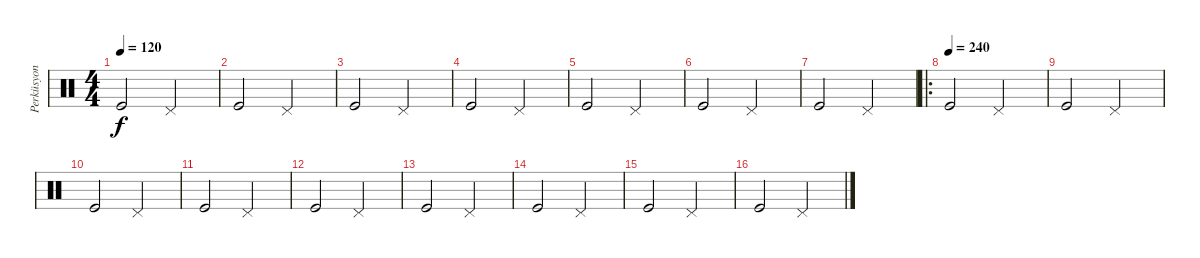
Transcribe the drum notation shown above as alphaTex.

\track ("Perküsyon" "Perküsyon") {instrument percussion}
\staff {score}
\articulation defaults
\ts (4 4)
\tempo 120
\clef neutral
\ks c "Kick (hit)".2{dy f} "Pedal Hi-Hat (hit)".2
|
"Kick (hit)".2 "Pedal Hi-Hat (hit)".2 |
"Kick (hit)".2 "Pedal Hi-Hat (hit)".2 |
"Kick (hit)".2 "Pedal Hi-Hat (hit)".2 |
"Kick (hit)".2 "Pedal Hi-Hat (hit)".2 |
"Kick (hit)".2 "Pedal Hi-Hat (hit)".2 |
"Kick (hit)".2 "Pedal Hi-Hat (hit)".2 |
\ro
\tempo (240)
"Kick (hit)".2 "Pedal Hi-Hat (hit)".2 |
"Kick (hit)".2 "Pedal Hi-Hat (hit)".2 |
"Kick (hit)".2 "Pedal Hi-Hat (hit)".2 |
"Kick (hit)".2 "Pedal Hi-Hat (hit)".2 |
"Kick (hit)".2 "Pedal Hi-Hat (hit)".2 |
"Kick (hit)".2 "Pedal Hi-Hat (hit)".2 |
"Kick (hit)".2 "Pedal Hi-Hat (hit)".2 |
"Kick (hit)".2 "Pedal Hi-Hat (hit)".2 |
"Kick (hit)".2 "Pedal Hi-Hat (hit)".2
